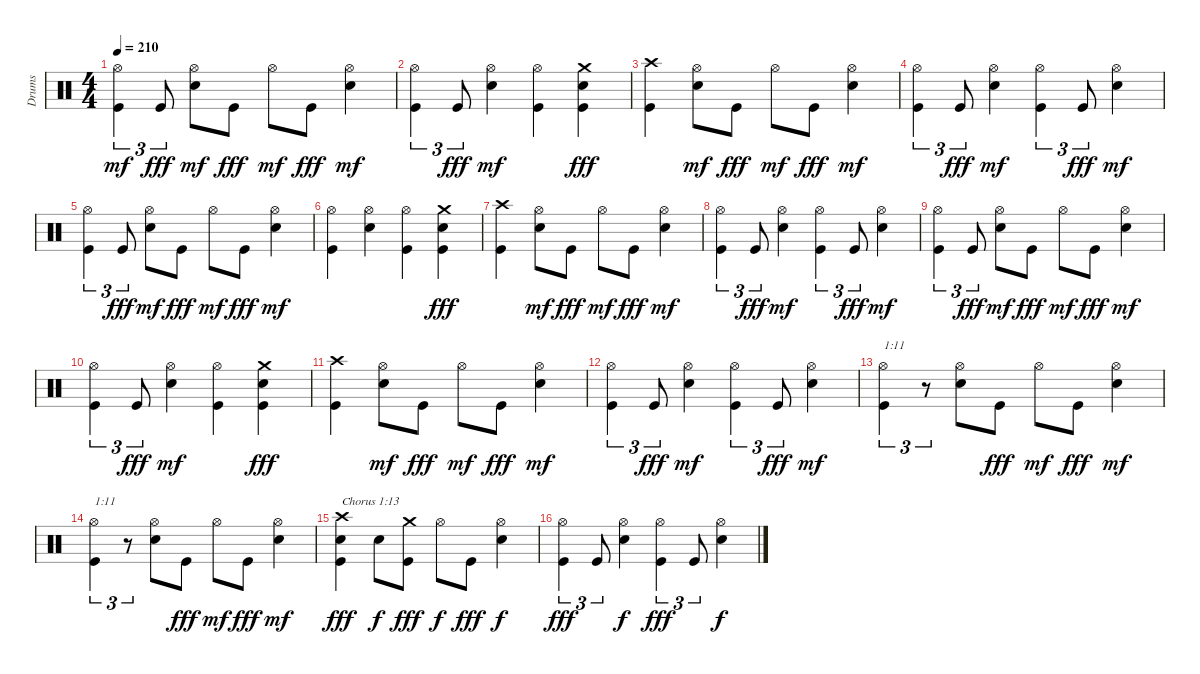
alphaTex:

\track ("Drums" "Drums") {instrument percussion}
\staff {score}
\articulation defaults
\ts (4 4)
\tempo 210
\clef neutral
\ks c
("Kick (hit)" "Hi-Hat (open)").4{tu (3 2) dy mf} "Kick (hit)".8{tu (3 2) dy fff} ("Electric Snare (hit)" "Hi-Hat (open)").8{dy mf} "Kick (hit)".8{dy fff} "Hi-Hat (open)".8{dy mf} "Kick (hit)".8{dy fff} ("Electric Snare (hit)" "Hi-Hat (open)").4{dy mf} |
("Kick (hit)" "Hi-Hat (open)").4{tu (3 2)} "Kick (hit)".8{tu (3 2) dy fff} ("Electric Snare (hit)" "Hi-Hat (open)").4{dy mf} ("Kick (hit)" "Hi-Hat (open)").4 ("Kick (hit)" "Electric Snare (hit)" "Crash medium (hit)").4{dy fff} |
("Kick (hit)" "Crash high (hit)").4 ("Electric Snare (hit)" "Hi-Hat (open)").8{dy mf} "Kick (hit)".8{dy fff} "Hi-Hat (open)".8{dy mf} "Kick (hit)".8{dy fff} ("Electric Snare (hit)" "Hi-Hat (open)").4{dy mf} |
("Kick (hit)" "Hi-Hat (open)").4{tu (3 2)} "Kick (hit)".8{tu (3 2) dy fff} ("Electric Snare (hit)" "Hi-Hat (open)").4{dy mf} ("Kick (hit)" "Hi-Hat (open)").4{tu (3 2)} "Kick (hit)".8{tu (3 2) dy fff} ("Electric Snare (hit)" "Hi-Hat (open)").4{dy mf} |
("Kick (hit)" "Hi-Hat (open)").4{tu (3 2)} "Kick (hit)".8{tu (3 2) dy fff} ("Electric Snare (hit)" "Hi-Hat (open)").8{dy mf} "Kick (hit)".8{dy fff} "Hi-Hat (open)".8{dy mf} "Kick (hit)".8{dy fff} ("Electric Snare (hit)" "Hi-Hat (open)").4{dy mf} |
("Kick (hit)" "Hi-Hat (open)").4 ("Electric Snare (hit)" "Hi-Hat (open)").4 ("Kick (hit)" "Hi-Hat (open)").4 ("Kick (hit)" "Electric Snare (hit)" "Crash medium (hit)").4{dy fff} |
("Kick (hit)" "Crash high (hit)").4 ("Electric Snare (hit)" "Hi-Hat (open)").8{dy mf} "Kick (hit)".8{dy fff} "Hi-Hat (open)".8{dy mf} "Kick (hit)".8{dy fff} ("Electric Snare (hit)" "Hi-Hat (open)").4{dy mf} |
("Kick (hit)" "Hi-Hat (open)").4{tu (3 2)} "Kick (hit)".8{tu (3 2) dy fff} ("Electric Snare (hit)" "Hi-Hat (open)").4{dy mf} ("Kick (hit)" "Hi-Hat (open)").4{tu (3 2)} "Kick (hit)".8{tu (3 2) dy fff} ("Electric Snare (hit)" "Hi-Hat (open)").4{dy mf} |
("Kick (hit)" "Hi-Hat (open)").4{tu (3 2)} "Kick (hit)".8{tu (3 2) dy fff} ("Electric Snare (hit)" "Hi-Hat (open)").8{dy mf} "Kick (hit)".8{dy fff} "Hi-Hat (open)".8{dy mf} "Kick (hit)".8{dy fff} ("Electric Snare (hit)" "Hi-Hat (open)").4{dy mf} |
("Kick (hit)" "Hi-Hat (open)").4{tu (3 2)} "Kick (hit)".8{tu (3 2) dy fff} ("Electric Snare (hit)" "Hi-Hat (open)").4{dy mf} ("Kick (hit)" "Hi-Hat (open)").4 ("Kick (hit)" "Electric Snare (hit)" "Crash medium (hit)").4{dy fff} |
("Kick (hit)" "Crash high (hit)").4 ("Electric Snare (hit)" "Hi-Hat (open)").8{dy mf} "Kick (hit)".8{dy fff} "Hi-Hat (open)".8{dy mf} "Kick (hit)".8{dy fff} ("Electric Snare (hit)" "Hi-Hat (open)").4{dy mf} |
("Kick (hit)" "Hi-Hat (open)").4{tu (3 2)} "Kick (hit)".8{tu (3 2) dy fff} ("Electric Snare (hit)" "Hi-Hat (open)").4{dy mf} ("Kick (hit)" "Hi-Hat (open)").4{tu (3 2)} "Kick (hit)".8{tu (3 2) dy fff} ("Electric Snare (hit)" "Hi-Hat (open)").4{dy mf} |
("Kick (hit)" "Hi-Hat (open)").4{tu (3 2) txt "1:11"} r.8{tu (3 2)} ("Electric Snare (hit)" "Hi-Hat (open)").8 "Kick (hit)".8{dy fff} "Hi-Hat (open)".8{dy mf} "Kick (hit)".8{dy fff} ("Electric Snare (hit)" "Hi-Hat (open)").4{dy mf} |
("Kick (hit)" "Hi-Hat (open)").4{tu (3 2) txt "1:11"} r.8{tu (3 2)} ("Electric Snare (hit)" "Hi-Hat (open)").8 "Kick (hit)".8{dy fff} "Hi-Hat (open)".8{dy mf} "Kick (hit)".8{dy fff} ("Electric Snare (hit)" "Hi-Hat (open)").4{dy mf} |
("Kick (hit)" "Electric Snare (hit)" "Crash high (hit)").4{txt "Chorus 1:13" dy fff} "Electric Snare (hit)".8{dy f} ("Kick (hit)" "Crash medium (hit)").8{dy fff} "Hi-Hat (open)".8{dy f} "Kick (hit)".8{dy fff} ("Electric Snare (hit)" "Hi-Hat (open)").4{dy f} |
("Kick (hit)" "Hi-Hat (open)").4{tu (3 2) dy fff} "Kick (hit)".8{tu (3 2)} ("Electric Snare (hit)" "Hi-Hat (open)").4{dy f} ("Kick (hit)" "Hi-Hat (open)").4{tu (3 2) dy fff} "Kick (hit)".8{tu (3 2)} ("Electric Snare (hit)" "Hi-Hat (open)").4{dy f}
